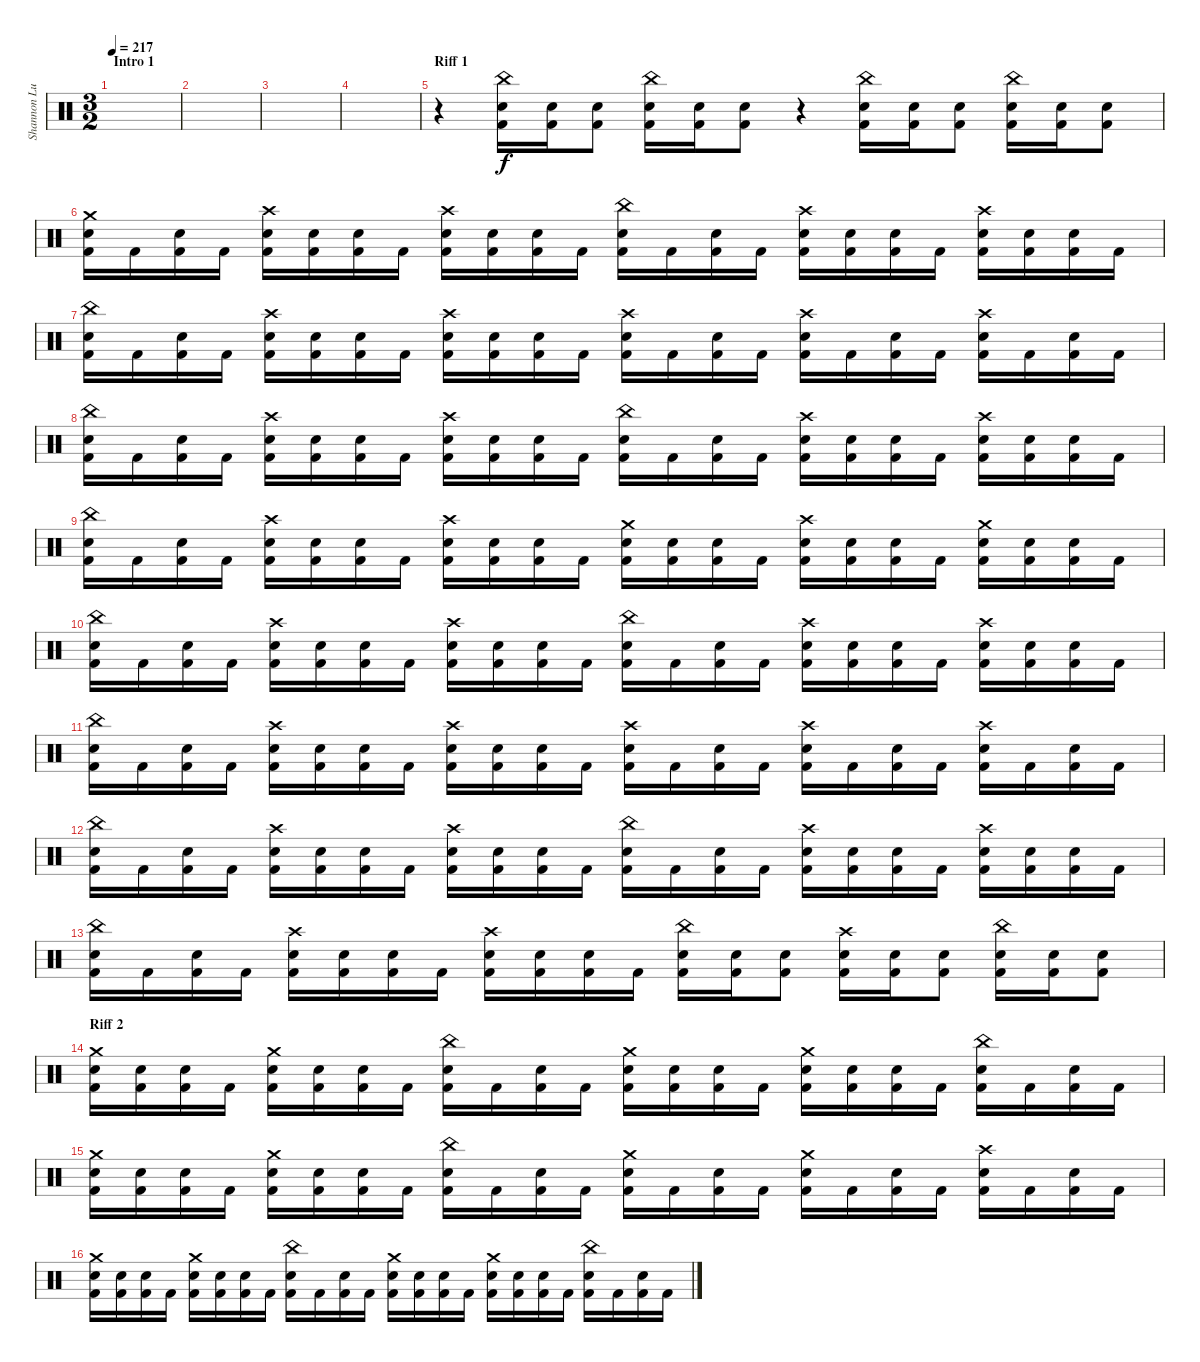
\track ("Shannon Lucas (Drums)" "Shannon Lu") {instrument percussion}
\staff {score}
\articulation defaults
\ts (3 2)
\section ("" "Intro 1")
\tempo 217
\clef neutral
\ks c
|
|
|
|
\section ("" "Riff 1")
r.4 ("China (hit)" "Snare (hit) 2" "Kick (hit) 2").16 ("Snare (hit) 2" "Kick (hit) 2").16 ("Snare (hit) 2" "Kick (hit) 2").8 ("China (hit)" "Snare (hit) 2" "Kick (hit) 2").16 ("Snare (hit) 2" "Kick (hit) 2").16 ("Snare (hit) 2" "Kick (hit) 2").8 r.4 ("China (hit)" "Snare (hit) 2" "Kick (hit) 2").16 ("Snare (hit) 2" "Kick (hit) 2").16 ("Snare (hit) 2" "Kick (hit) 2").8 ("China (hit)" "Snare (hit) 2" "Kick (hit) 2").16 ("Snare (hit) 2" "Kick (hit) 2").16 ("Snare (hit) 2" "Kick (hit) 2").8 |
("Crash medium (hit)" "Snare (hit) 2" "Kick (hit) 2").16 "Kick (hit) 2".16 ("Snare (hit) 2" "Kick (hit) 2").16 "Kick (hit) 2".16 ("Crash high (hit)" "Snare (hit) 2" "Kick (hit) 2").16 ("Snare (hit) 2" "Kick (hit) 2").16 ("Snare (hit) 2" "Kick (hit) 2").16 "Kick (hit) 2".16 ("Crash high (hit)" "Snare (hit) 2" "Kick (hit) 2").16 ("Snare (hit) 2" "Kick (hit) 2").16 ("Snare (hit) 2" "Kick (hit) 2").16 "Kick (hit) 2".16 ("China (hit)" "Snare (hit) 2" "Kick (hit) 2").16 "Kick (hit) 2".16 ("Snare (hit) 2" "Kick (hit) 2").16 "Kick (hit) 2".16 ("Crash high (hit)" "Snare (hit) 2" "Kick (hit) 2").16 ("Snare (hit) 2" "Kick (hit) 2").16 ("Snare (hit) 2" "Kick (hit) 2").16 "Kick (hit) 2".16 ("Crash high (hit)" "Snare (hit) 2" "Kick (hit) 2").16 ("Snare (hit) 2" "Kick (hit) 2").16 ("Snare (hit) 2" "Kick (hit) 2").16 "Kick (hit) 2".16 |
("China (hit)" "Snare (hit) 2" "Kick (hit) 2").16 "Kick (hit) 2".16 ("Snare (hit) 2" "Kick (hit) 2").16 "Kick (hit) 2".16 ("Crash high (hit)" "Snare (hit) 2" "Kick (hit) 2").16 ("Snare (hit) 2" "Kick (hit) 2").16 ("Snare (hit) 2" "Kick (hit) 2").16 "Kick (hit) 2".16 ("Crash high (hit)" "Snare (hit) 2" "Kick (hit) 2").16 ("Snare (hit) 2" "Kick (hit) 2").16 ("Snare (hit) 2" "Kick (hit) 2").16 "Kick (hit) 2".16 ("Crash high (hit)" "Snare (hit) 2" "Kick (hit) 2").16 "Kick (hit) 2".16 ("Snare (hit) 2" "Kick (hit) 2").16 "Kick (hit) 2".16 ("Crash high (hit)" "Snare (hit) 2" "Kick (hit) 2").16 "Kick (hit) 2".16 ("Snare (hit) 2" "Kick (hit) 2").16 "Kick (hit) 2".16 ("Crash high (hit)" "Snare (hit) 2" "Kick (hit) 2").16 "Kick (hit) 2".16 ("Snare (hit) 2" "Kick (hit) 2").16 "Kick (hit) 2".16 |
("China (hit)" "Snare (hit) 2" "Kick (hit) 2").16 "Kick (hit) 2".16 ("Snare (hit) 2" "Kick (hit) 2").16 "Kick (hit) 2".16 ("Crash high (hit)" "Snare (hit) 2" "Kick (hit) 2").16 ("Snare (hit) 2" "Kick (hit) 2").16 ("Snare (hit) 2" "Kick (hit) 2").16 "Kick (hit) 2".16 ("Crash high (hit)" "Snare (hit) 2" "Kick (hit) 2").16 ("Snare (hit) 2" "Kick (hit) 2").16 ("Snare (hit) 2" "Kick (hit) 2").16 "Kick (hit) 2".16 ("China (hit)" "Snare (hit) 2" "Kick (hit) 2").16 "Kick (hit) 2".16 ("Snare (hit) 2" "Kick (hit) 2").16 "Kick (hit) 2".16 ("Crash high (hit)" "Snare (hit) 2" "Kick (hit) 2").16 ("Snare (hit) 2" "Kick (hit) 2").16 ("Snare (hit) 2" "Kick (hit) 2").16 "Kick (hit) 2".16 ("Crash high (hit)" "Snare (hit) 2" "Kick (hit) 2").16 ("Snare (hit) 2" "Kick (hit) 2").16 ("Snare (hit) 2" "Kick (hit) 2").16 "Kick (hit) 2".16 |
("China (hit)" "Snare (hit) 2" "Kick (hit) 2").16 "Kick (hit) 2".16 ("Snare (hit) 2" "Kick (hit) 2").16 "Kick (hit) 2".16 ("Crash high (hit)" "Snare (hit) 2" "Kick (hit) 2").16 ("Snare (hit) 2" "Kick (hit) 2").16 ("Snare (hit) 2" "Kick (hit) 2").16 "Kick (hit) 2".16 ("Crash high (hit)" "Snare (hit) 2" "Kick (hit) 2").16 ("Snare (hit) 2" "Kick (hit) 2").16 ("Snare (hit) 2" "Kick (hit) 2").16 "Kick (hit) 2".16 ("Crash medium (hit)" "Snare (hit) 2" "Kick (hit) 2").16 ("Snare (hit) 2" "Kick (hit) 2").16 ("Snare (hit) 2" "Kick (hit) 2").16 "Kick (hit) 2".16 ("Crash high (hit)" "Snare (hit) 2" "Kick (hit) 2").16 ("Snare (hit) 2" "Kick (hit) 2").16 ("Snare (hit) 2" "Kick (hit) 2").16 "Kick (hit) 2".16 ("Crash medium (hit)" "Snare (hit) 2" "Kick (hit) 2").16 ("Snare (hit) 2" "Kick (hit) 2").16 ("Snare (hit) 2" "Kick (hit) 2").16 "Kick (hit) 2".16 |
("China (hit)" "Snare (hit) 2" "Kick (hit) 2").16 "Kick (hit) 2".16 ("Snare (hit) 2" "Kick (hit) 2").16 "Kick (hit) 2".16 ("Crash high (hit)" "Snare (hit) 2" "Kick (hit) 2").16 ("Snare (hit) 2" "Kick (hit) 2").16 ("Snare (hit) 2" "Kick (hit) 2").16 "Kick (hit) 2".16 ("Crash high (hit)" "Snare (hit) 2" "Kick (hit) 2").16 ("Snare (hit) 2" "Kick (hit) 2").16 ("Snare (hit) 2" "Kick (hit) 2").16 "Kick (hit) 2".16 ("China (hit)" "Snare (hit) 2" "Kick (hit) 2").16 "Kick (hit) 2".16 ("Snare (hit) 2" "Kick (hit) 2").16 "Kick (hit) 2".16 ("Crash high (hit)" "Snare (hit) 2" "Kick (hit) 2").16 ("Snare (hit) 2" "Kick (hit) 2").16 ("Snare (hit) 2" "Kick (hit) 2").16 "Kick (hit) 2".16 ("Crash high (hit)" "Snare (hit) 2" "Kick (hit) 2").16 ("Snare (hit) 2" "Kick (hit) 2").16 ("Snare (hit) 2" "Kick (hit) 2").16 "Kick (hit) 2".16 |
("China (hit)" "Snare (hit) 2" "Kick (hit) 2").16 "Kick (hit) 2".16 ("Snare (hit) 2" "Kick (hit) 2").16 "Kick (hit) 2".16 ("Crash high (hit)" "Snare (hit) 2" "Kick (hit) 2").16 ("Snare (hit) 2" "Kick (hit) 2").16 ("Snare (hit) 2" "Kick (hit) 2").16 "Kick (hit) 2".16 ("Crash high (hit)" "Snare (hit) 2" "Kick (hit) 2").16 ("Snare (hit) 2" "Kick (hit) 2").16 ("Snare (hit) 2" "Kick (hit) 2").16 "Kick (hit) 2".16 ("Crash high (hit)" "Snare (hit) 2" "Kick (hit) 2").16 "Kick (hit) 2".16 ("Snare (hit) 2" "Kick (hit) 2").16 "Kick (hit) 2".16 ("Crash high (hit)" "Snare (hit) 2" "Kick (hit) 2").16 "Kick (hit) 2".16 ("Snare (hit) 2" "Kick (hit) 2").16 "Kick (hit) 2".16 ("Crash high (hit)" "Snare (hit) 2" "Kick (hit) 2").16 "Kick (hit) 2".16 ("Snare (hit) 2" "Kick (hit) 2").16 "Kick (hit) 2".16 |
("China (hit)" "Snare (hit) 2" "Kick (hit) 2").16 "Kick (hit) 2".16 ("Snare (hit) 2" "Kick (hit) 2").16 "Kick (hit) 2".16 ("Crash high (hit)" "Snare (hit) 2" "Kick (hit) 2").16 ("Snare (hit) 2" "Kick (hit) 2").16 ("Snare (hit) 2" "Kick (hit) 2").16 "Kick (hit) 2".16 ("Crash high (hit)" "Snare (hit) 2" "Kick (hit) 2").16 ("Snare (hit) 2" "Kick (hit) 2").16 ("Snare (hit) 2" "Kick (hit) 2").16 "Kick (hit) 2".16 ("China (hit)" "Snare (hit) 2" "Kick (hit) 2").16 "Kick (hit) 2".16 ("Snare (hit) 2" "Kick (hit) 2").16 "Kick (hit) 2".16 ("Crash high (hit)" "Snare (hit) 2" "Kick (hit) 2").16 ("Snare (hit) 2" "Kick (hit) 2").16 ("Snare (hit) 2" "Kick (hit) 2").16 "Kick (hit) 2".16 ("Crash high (hit)" "Snare (hit) 2" "Kick (hit) 2").16 ("Snare (hit) 2" "Kick (hit) 2").16 ("Snare (hit) 2" "Kick (hit) 2").16 "Kick (hit) 2".16 |
("China (hit)" "Snare (hit) 2" "Kick (hit) 2").16 "Kick (hit) 2".16 ("Snare (hit) 2" "Kick (hit) 2").16 "Kick (hit) 2".16 ("Crash high (hit)" "Snare (hit) 2" "Kick (hit) 2").16 ("Snare (hit) 2" "Kick (hit) 2").16 ("Snare (hit) 2" "Kick (hit) 2").16 "Kick (hit) 2".16 ("Crash high (hit)" "Snare (hit) 2" "Kick (hit) 2").16 ("Snare (hit) 2" "Kick (hit) 2").16 ("Snare (hit) 2" "Kick (hit) 2").16 "Kick (hit) 2".16 ("China (hit)" "Snare (hit) 2" "Kick (hit) 2").16 ("Snare (hit) 2" "Kick (hit) 2").16 ("Snare (hit) 2" "Kick (hit) 2").8 ("Crash high (hit)" "Snare (hit) 2" "Kick (hit) 2").16 ("Snare (hit) 2" "Kick (hit) 2").16 ("Snare (hit) 2" "Kick (hit) 2").8 ("China (hit)" "Snare (hit) 2" "Kick (hit) 2").16 ("Snare (hit) 2" "Kick (hit) 2").16 ("Snare (hit) 2" "Kick (hit) 2").8 |
\section ("" "Riff 2")
("Crash medium (hit)" "Snare (hit) 2" "Kick (hit) 2").16 ("Snare (hit) 2" "Kick (hit) 2").16 ("Snare (hit) 2" "Kick (hit) 2").16 "Kick (hit) 2".16 ("Crash medium (hit)" "Snare (hit) 2" "Kick (hit) 2").16 ("Snare (hit) 2" "Kick (hit) 2").16 ("Snare (hit) 2" "Kick (hit) 2").16 "Kick (hit) 2".16 ("China (hit)" "Snare (hit) 2" "Kick (hit) 2").16 "Kick (hit) 2".16 ("Snare (hit) 2" "Kick (hit) 2").16 "Kick (hit) 2".16 ("Crash medium (hit)" "Snare (hit) 2" "Kick (hit) 2").16 ("Snare (hit) 2" "Kick (hit) 2").16 ("Snare (hit) 2" "Kick (hit) 2").16 "Kick (hit) 2".16 ("Crash medium (hit)" "Snare (hit) 2" "Kick (hit) 2").16 ("Snare (hit) 2" "Kick (hit) 2").16 ("Snare (hit) 2" "Kick (hit) 2").16 "Kick (hit) 2".16 ("China (hit)" "Snare (hit) 2" "Kick (hit) 2").16 "Kick (hit) 2".16 ("Snare (hit) 2" "Kick (hit) 2").16 "Kick (hit) 2".16 |
("Crash medium (hit)" "Snare (hit) 2" "Kick (hit) 2").16 ("Snare (hit) 2" "Kick (hit) 2").16 ("Snare (hit) 2" "Kick (hit) 2").16 "Kick (hit) 2".16 ("Crash medium (hit)" "Snare (hit) 2" "Kick (hit) 2").16 ("Snare (hit) 2" "Kick (hit) 2").16 ("Snare (hit) 2" "Kick (hit) 2").16 "Kick (hit) 2".16 ("China (hit)" "Snare (hit) 2" "Kick (hit) 2").16 "Kick (hit) 2".16 ("Snare (hit) 2" "Kick (hit) 2").16 "Kick (hit) 2".16 ("Crash medium (hit)" "Snare (hit) 2" "Kick (hit) 2").16 "Kick (hit) 2".16 ("Snare (hit) 2" "Kick (hit) 2").16 "Kick (hit) 2".16 ("Crash medium (hit)" "Snare (hit) 2" "Kick (hit) 2").16 "Kick (hit) 2".16 ("Snare (hit) 2" "Kick (hit) 2").16 "Kick (hit) 2".16 ("Crash high (hit)" "Snare (hit) 2" "Kick (hit) 2").16 "Kick (hit) 2".16 ("Snare (hit) 2" "Kick (hit) 2").16 "Kick (hit) 2".16 |
("Crash medium (hit)" "Snare (hit) 2" "Kick (hit) 2").16 ("Snare (hit) 2" "Kick (hit) 2").16 ("Snare (hit) 2" "Kick (hit) 2").16 "Kick (hit) 2".16 ("Crash medium (hit)" "Snare (hit) 2" "Kick (hit) 2").16 ("Snare (hit) 2" "Kick (hit) 2").16 ("Snare (hit) 2" "Kick (hit) 2").16 "Kick (hit) 2".16 ("China (hit)" "Snare (hit) 2" "Kick (hit) 2").16 "Kick (hit) 2".16 ("Snare (hit) 2" "Kick (hit) 2").16 "Kick (hit) 2".16 ("Crash medium (hit)" "Snare (hit) 2" "Kick (hit) 2").16 ("Snare (hit) 2" "Kick (hit) 2").16 ("Snare (hit) 2" "Kick (hit) 2").16 "Kick (hit) 2".16 ("Crash medium (hit)" "Snare (hit) 2" "Kick (hit) 2").16 ("Snare (hit) 2" "Kick (hit) 2").16 ("Snare (hit) 2" "Kick (hit) 2").16 "Kick (hit) 2".16 ("China (hit)" "Snare (hit) 2" "Kick (hit) 2").16 "Kick (hit) 2".16 ("Snare (hit) 2" "Kick (hit) 2").16 "Kick (hit) 2".16
